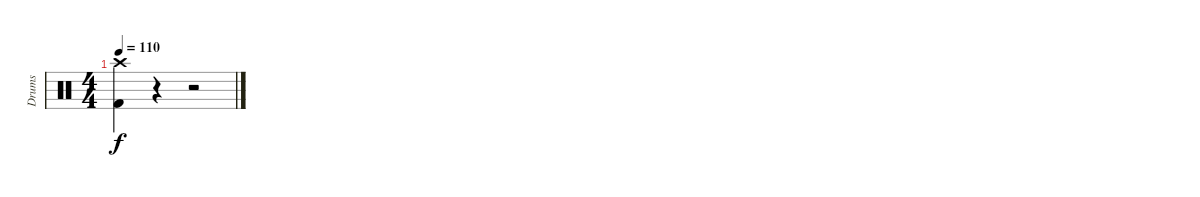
\track ("Drums" "Drums") {instrument percussion}
\staff {score}
\articulation defaults
\ts (4 4)
\tempo 110
\clef neutral
\ks c
("Crash high (hit)" "Kick (hit) 2").4{dy f} r.4 r.2
